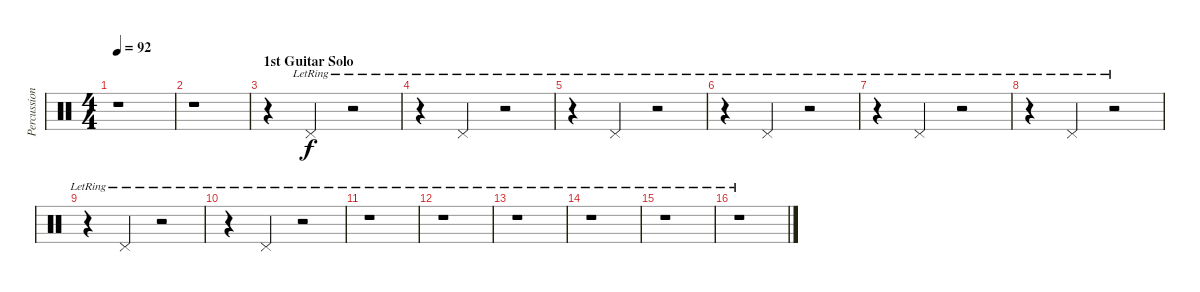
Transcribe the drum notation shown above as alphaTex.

\track ("Percussion" "Percussion") {instrument percussion}
\staff {score}
\articulation defaults
\ts (4 4)
\tempo 92
\clef neutral
\ks c
r.1{dy f} |
r.1 |
\section ("" "1st Guitar Solo")
r.4 "Pedal Hi-Hat (hit)"{lr}.4 r.2 |
r.4 "Pedal Hi-Hat (hit)"{lr}.4 r.2 |
r.4 "Pedal Hi-Hat (hit)"{lr}.4 r.2 |
r.4 "Pedal Hi-Hat (hit)"{lr}.4 r.2 |
r.4 "Pedal Hi-Hat (hit)"{lr}.4 r.2 |
r.4 "Pedal Hi-Hat (hit)"{lr}.4 r.2 |
r.4 "Pedal Hi-Hat (hit)"{lr}.4 r.2 |
r.4 "Pedal Hi-Hat (hit)"{lr}.4 r.2 |
r.1 |
r.1 |
r.1 |
r.1 |
r.1 |
r.1
